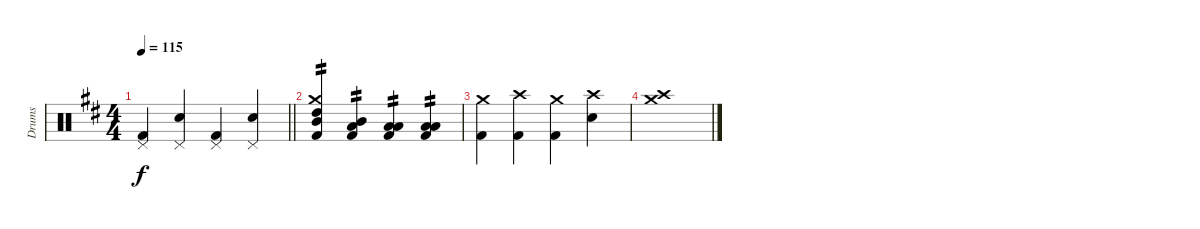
\track ("Drums" "Drums") {instrument percussion}
\staff {score}
\articulation defaults
\ts (4 4)
\tempo 115
\clef neutral
\barLineRight lightlight
\ks d
("Kick (hit) 2" "Pedal Hi-Hat (hit)").4{dy f} ("Snare (hit) 2" "Pedal Hi-Hat (hit)").4 ("Kick (hit) 2" "Pedal Hi-Hat (hit)").4 ("Snare (hit) 2" "Pedal Hi-Hat (hit)").4 |
("Kick (hit) 2" "Crash medium (hit)" "High Tom (hit)" "Mid Tom (hit)").4{tp 2} ("Kick (hit) 2" "Mid Tom (hit)" "Low Tom (hit)").4{tp 2} ("Kick (hit) 2" "Low Tom (hit)" "Low Floor Tom (hit)").4{tp 2} ("Kick (hit) 2" "Low Floor Tom (hit)" "Low Floor Tom (hit)").4{tp 2} |
("Kick (hit) 2" "Crash medium (hit)").4 ("Kick (hit) 2" "Crash high (hit)").4 ("Kick (hit) 2" "Crash medium (hit)").4 ("Snare (hit) 2" "Crash high (hit)").4 |
("Crash medium (hit)" "Crash high (hit)").1
